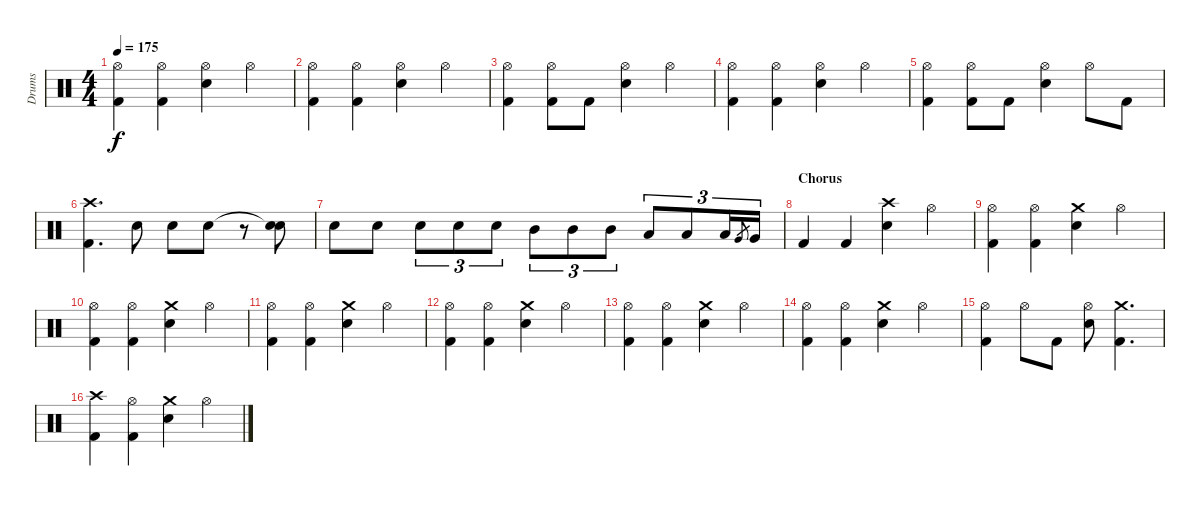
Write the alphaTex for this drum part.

\track ("Drums" "Drums") {instrument percussion}
\staff {score}
\articulation defaults
\ts (4 4)
\tempo 175
\clef neutral
\ks c
("Hi-Hat (open)" "Kick (hit) 2").4{dy f} ("Hi-Hat (open)" "Kick (hit) 2").4 ("Hi-Hat (open)" "Snare (hit) 2").4 "Hi-Hat (open)".4 |
("Hi-Hat (open)" "Kick (hit) 2").4 ("Hi-Hat (open)" "Kick (hit) 2").4 ("Hi-Hat (open)" "Snare (hit) 2").4 "Hi-Hat (open)".4 |
("Hi-Hat (open)" "Kick (hit) 2").4 ("Hi-Hat (open)" "Kick (hit) 2").8 "Kick (hit) 2".8 ("Hi-Hat (open)" "Snare (hit) 2").4 "Hi-Hat (open)".4 |
("Hi-Hat (open)" "Kick (hit) 2").4 ("Hi-Hat (open)" "Kick (hit) 2").4 ("Hi-Hat (open)" "Snare (hit) 2").4 "Hi-Hat (open)".4 |
("Hi-Hat (open)" "Kick (hit) 2").4 ("Hi-Hat (open)" "Kick (hit) 2").8 "Kick (hit) 2".8 ("Hi-Hat (open)" "Snare (hit) 2").4 "Hi-Hat (open)".8 "Kick (hit) 2".8 |
("Crash high (hit)" "Kick (hit) 2").4{d} "Snare (hit) 2".8 "Snare (hit) 2".8 "Snare (hit) 2".8 r.8 ("Snare (hit)"{t} "Snare (hit) 2").8 |
"Snare (hit) 2".8 "Snare (hit) 2".8 "Snare (hit) 2".8{tu (3 2)} "Snare (hit) 2".8{tu (3 2)} "Snare (hit) 2".8{tu (3 2)} "Mid Tom (hit)".8{tu (3 2)} "Mid Tom (hit)".8{tu (3 2)} "Mid Tom (hit)".8{tu (3 2)} "Low Tom (hit)".8{tu (3 2)} "Low Tom (hit)".8{tu (3 2)} "Low Tom (hit)".16{tu (3 2)} "Very Low Tom (hit)".8{gr} "Very Low Tom (hit)".16{tu (3 2)} |
\section ("" "Chorus")
"Kick (hit) 2".4 "Kick (hit) 2".4 ("Crash high (hit)" "Snare (hit) 2").4 "Hi-Hat (open)".4 |
("Hi-Hat (open)" "Kick (hit) 2").4 ("Hi-Hat (open)" "Kick (hit) 2").4 ("Crash medium (hit)" "Snare (hit) 2").4 "Hi-Hat (open)".4 |
("Hi-Hat (open)" "Kick (hit) 2").4 ("Hi-Hat (open)" "Kick (hit) 2").4 ("Crash medium (hit)" "Snare (hit) 2").4 "Hi-Hat (open)".4 |
("Hi-Hat (open)" "Kick (hit) 2").4 ("Hi-Hat (open)" "Kick (hit) 2").4 ("Crash medium (hit)" "Snare (hit) 2").4 "Hi-Hat (open)".4 |
("Hi-Hat (open)" "Kick (hit) 2").4 ("Hi-Hat (open)" "Kick (hit) 2").4 ("Crash medium (hit)" "Snare (hit) 2").4 "Hi-Hat (open)".4 |
("Hi-Hat (open)" "Kick (hit) 2").4 ("Hi-Hat (open)" "Kick (hit) 2").4 ("Crash medium (hit)" "Snare (hit) 2").4 "Hi-Hat (open)".4 |
("Hi-Hat (open)" "Kick (hit) 2").4 ("Hi-Hat (open)" "Kick (hit) 2").4 ("Crash medium (hit)" "Snare (hit) 2").4 "Hi-Hat (open)".4 |
("Hi-Hat (open)" "Kick (hit) 2").4 "Hi-Hat (open)".8 "Kick (hit) 2".8 ("Hi-Hat (open)" "Snare (hit) 2").8 ("Crash medium (hit)" "Kick (hit) 2").4{d} |
("Crash high (hit)" "Kick (hit) 2").4 ("Hi-Hat (open)" "Kick (hit) 2").4 ("Crash medium (hit)" "Snare (hit) 2").4 "Hi-Hat (open)".4
